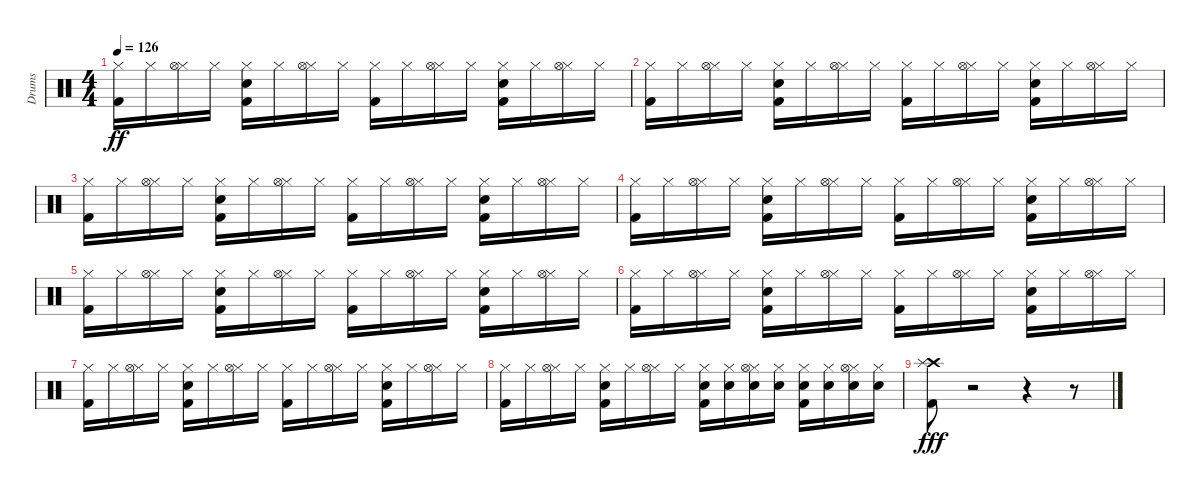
\track ("Drums" "Drums") {instrument percussion}
\staff {score}
\articulation defaults
\ts (4 4)
\tempo 126
\clef neutral
\ks c
("Kick (hit) 2" "Hi-Hat (closed)").16{dy ff} "Hi-Hat (closed)".16 ("Hi-Hat (closed)" "Hi-Hat (open)").16 "Hi-Hat (closed)".16 ("Kick (hit) 2" "Electric Snare (hit)" "Hi-Hat (closed)").16 "Hi-Hat (closed)".16 ("Hi-Hat (closed)" "Hi-Hat (open)").16 "Hi-Hat (closed)".16 ("Kick (hit) 2" "Hi-Hat (closed)").16 "Hi-Hat (closed)".16 ("Hi-Hat (closed)" "Hi-Hat (open)").16 "Hi-Hat (closed)".16 ("Kick (hit) 2" "Electric Snare (hit)" "Hi-Hat (closed)").16 "Hi-Hat (closed)".16 ("Hi-Hat (closed)" "Hi-Hat (open)").16 "Hi-Hat (closed)".16 |
("Kick (hit) 2" "Hi-Hat (closed)").16 "Hi-Hat (closed)".16 ("Hi-Hat (closed)" "Hi-Hat (open)").16 "Hi-Hat (closed)".16 ("Kick (hit) 2" "Electric Snare (hit)" "Hi-Hat (closed)").16 "Hi-Hat (closed)".16 ("Hi-Hat (closed)" "Hi-Hat (open)").16 "Hi-Hat (closed)".16 ("Kick (hit) 2" "Hi-Hat (closed)").16 "Hi-Hat (closed)".16 ("Hi-Hat (closed)" "Hi-Hat (open)").16 "Hi-Hat (closed)".16 ("Kick (hit) 2" "Electric Snare (hit)" "Hi-Hat (closed)").16 "Hi-Hat (closed)".16 ("Hi-Hat (closed)" "Hi-Hat (open)").16 "Hi-Hat (closed)".16 |
("Kick (hit) 2" "Hi-Hat (closed)").16 "Hi-Hat (closed)".16 ("Hi-Hat (closed)" "Hi-Hat (open)").16 "Hi-Hat (closed)".16 ("Kick (hit) 2" "Electric Snare (hit)" "Hi-Hat (closed)").16 "Hi-Hat (closed)".16 ("Hi-Hat (closed)" "Hi-Hat (open)").16 "Hi-Hat (closed)".16 ("Kick (hit) 2" "Hi-Hat (closed)").16 "Hi-Hat (closed)".16 ("Hi-Hat (closed)" "Hi-Hat (open)").16 "Hi-Hat (closed)".16 ("Kick (hit) 2" "Electric Snare (hit)" "Hi-Hat (closed)").16 "Hi-Hat (closed)".16 ("Hi-Hat (closed)" "Hi-Hat (open)").16 "Hi-Hat (closed)".16 |
("Kick (hit) 2" "Hi-Hat (closed)").16 "Hi-Hat (closed)".16 ("Hi-Hat (closed)" "Hi-Hat (open)").16 "Hi-Hat (closed)".16 ("Kick (hit) 2" "Electric Snare (hit)" "Hi-Hat (closed)").16 "Hi-Hat (closed)".16 ("Hi-Hat (closed)" "Hi-Hat (open)").16 "Hi-Hat (closed)".16 ("Kick (hit) 2" "Hi-Hat (closed)").16 "Hi-Hat (closed)".16 ("Hi-Hat (closed)" "Hi-Hat (open)").16 "Hi-Hat (closed)".16 ("Kick (hit) 2" "Electric Snare (hit)" "Hi-Hat (closed)").16 "Hi-Hat (closed)".16 ("Hi-Hat (closed)" "Hi-Hat (open)").16 "Hi-Hat (closed)".16 |
("Kick (hit) 2" "Hi-Hat (closed)").16 "Hi-Hat (closed)".16 ("Hi-Hat (closed)" "Hi-Hat (open)").16 "Hi-Hat (closed)".16 ("Kick (hit) 2" "Electric Snare (hit)" "Hi-Hat (closed)").16 "Hi-Hat (closed)".16 ("Hi-Hat (closed)" "Hi-Hat (open)").16 "Hi-Hat (closed)".16 ("Kick (hit) 2" "Hi-Hat (closed)").16 "Hi-Hat (closed)".16 ("Hi-Hat (closed)" "Hi-Hat (open)").16 "Hi-Hat (closed)".16 ("Kick (hit) 2" "Electric Snare (hit)" "Hi-Hat (closed)").16 "Hi-Hat (closed)".16 ("Hi-Hat (closed)" "Hi-Hat (open)").16 "Hi-Hat (closed)".16 |
("Kick (hit) 2" "Hi-Hat (closed)").16 "Hi-Hat (closed)".16 ("Hi-Hat (closed)" "Hi-Hat (open)").16 "Hi-Hat (closed)".16 ("Kick (hit) 2" "Electric Snare (hit)" "Hi-Hat (closed)").16 "Hi-Hat (closed)".16 ("Hi-Hat (closed)" "Hi-Hat (open)").16 "Hi-Hat (closed)".16 ("Kick (hit) 2" "Hi-Hat (closed)").16 "Hi-Hat (closed)".16 ("Hi-Hat (closed)" "Hi-Hat (open)").16 "Hi-Hat (closed)".16 ("Kick (hit) 2" "Electric Snare (hit)" "Hi-Hat (closed)").16 "Hi-Hat (closed)".16 ("Hi-Hat (closed)" "Hi-Hat (open)").16 "Hi-Hat (closed)".16 |
("Kick (hit) 2" "Hi-Hat (closed)").16 "Hi-Hat (closed)".16 ("Hi-Hat (closed)" "Hi-Hat (open)").16 "Hi-Hat (closed)".16 ("Kick (hit) 2" "Electric Snare (hit)" "Hi-Hat (closed)").16 "Hi-Hat (closed)".16 ("Hi-Hat (closed)" "Hi-Hat (open)").16 "Hi-Hat (closed)".16 ("Kick (hit) 2" "Hi-Hat (closed)").16 "Hi-Hat (closed)".16 ("Hi-Hat (closed)" "Hi-Hat (open)").16 "Hi-Hat (closed)".16 ("Kick (hit) 2" "Electric Snare (hit)" "Hi-Hat (closed)").16 "Hi-Hat (closed)".16 ("Hi-Hat (closed)" "Hi-Hat (open)").16 "Hi-Hat (closed)".16 |
("Kick (hit) 2" "Hi-Hat (closed)").16 "Hi-Hat (closed)".16 ("Hi-Hat (closed)" "Hi-Hat (open)").16 "Hi-Hat (closed)".16 ("Kick (hit) 2" "Electric Snare (hit)" "Hi-Hat (closed)").16 "Hi-Hat (closed)".16 ("Hi-Hat (closed)" "Hi-Hat (open)").16 "Hi-Hat (closed)".16 ("Kick (hit) 2" "Electric Snare (hit)" "Hi-Hat (closed)").16 ("Electric Snare (hit)" "Hi-Hat (closed)").16 ("Electric Snare (hit)" "Hi-Hat (closed)" "Hi-Hat (open)").16 ("Electric Snare (hit)" "Hi-Hat (closed)").16 ("Kick (hit) 2" "Electric Snare (hit)" "Hi-Hat (closed)").16 ("Electric Snare (hit)" "Hi-Hat (closed)").16 ("Electric Snare (hit)" "Hi-Hat (closed)" "Hi-Hat (open)").16 ("Electric Snare (hit)" "Hi-Hat (closed)").16 |
("Kick (hit) 2" "Crash high (hit)" "Splash (hit)").8{dy fff} r.2 r.4 r.8
